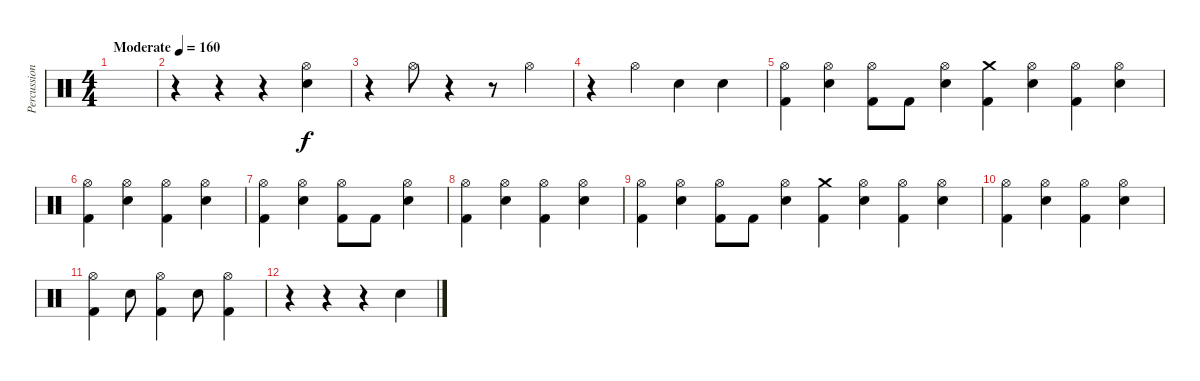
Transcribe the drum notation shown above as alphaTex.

\track ("Percussion" "Percussion") {instrument percussion}
\staff {score}
\articulation defaults
\ts (4 4)
\tempo (160 "Moderate")
\clef neutral
\ks c
|
r.4 r.4 r.4 ("Electric Snare (hit)" "Hi-Hat (open)").4 |
r.4 "Hi-Hat (open)".8 r.4 r.8 "Hi-Hat (open)".4 |
r.4 "Hi-Hat (open)".4 "Electric Snare (hit)".4 "Electric Snare (hit)".4 |
("Kick (hit) 2" "Hi-Hat (open)").4 ("Electric Snare (hit)" "Hi-Hat (open)").4 ("Kick (hit) 2" "Hi-Hat (open)").8 "Kick (hit) 2".8 ("Electric Snare (hit)" "Hi-Hat (open)").4 ("Kick (hit) 2" "Crash medium (hit)").4 ("Electric Snare (hit)" "Hi-Hat (open)").4 ("Kick (hit) 2" "Hi-Hat (open)").4 ("Electric Snare (hit)" "Hi-Hat (open)").4 |
("Kick (hit) 2" "Hi-Hat (open)").4 ("Electric Snare (hit)" "Hi-Hat (open)").4 ("Kick (hit) 2" "Hi-Hat (open)").4 ("Electric Snare (hit)" "Hi-Hat (open)").4 |
("Kick (hit) 2" "Hi-Hat (open)").4 ("Electric Snare (hit)" "Hi-Hat (open)").4 ("Kick (hit) 2" "Hi-Hat (open)").8 "Kick (hit) 2".8 ("Electric Snare (hit)" "Hi-Hat (open)").4 |
("Kick (hit) 2" "Hi-Hat (open)").4 ("Electric Snare (hit)" "Hi-Hat (open)").4 ("Kick (hit) 2" "Hi-Hat (open)").4 ("Electric Snare (hit)" "Hi-Hat (open)").4 |
("Kick (hit) 2" "Hi-Hat (open)").4 ("Electric Snare (hit)" "Hi-Hat (open)").4 ("Kick (hit) 2" "Hi-Hat (open)").8 "Kick (hit) 2".8 ("Electric Snare (hit)" "Hi-Hat (open)").4 ("Kick (hit) 2" "Crash medium (hit)").4 ("Electric Snare (hit)" "Hi-Hat (open)").4 ("Kick (hit) 2" "Hi-Hat (open)").4 ("Electric Snare (hit)" "Hi-Hat (open)").4 |
("Kick (hit) 2" "Hi-Hat (open)").4 ("Electric Snare (hit)" "Hi-Hat (open)").4 ("Kick (hit) 2" "Hi-Hat (open)").4 ("Electric Snare (hit)" "Hi-Hat (open)").4 |
("Kick (hit) 2" "Hi-Hat (open)").4 "Electric Snare (hit)".8 ("Kick (hit) 2" "Hi-Hat (open)").4 "Electric Snare (hit)".8 ("Kick (hit) 2" "Hi-Hat (open)").4 |
r.4 r.4 r.4 "Electric Snare (hit)".4
